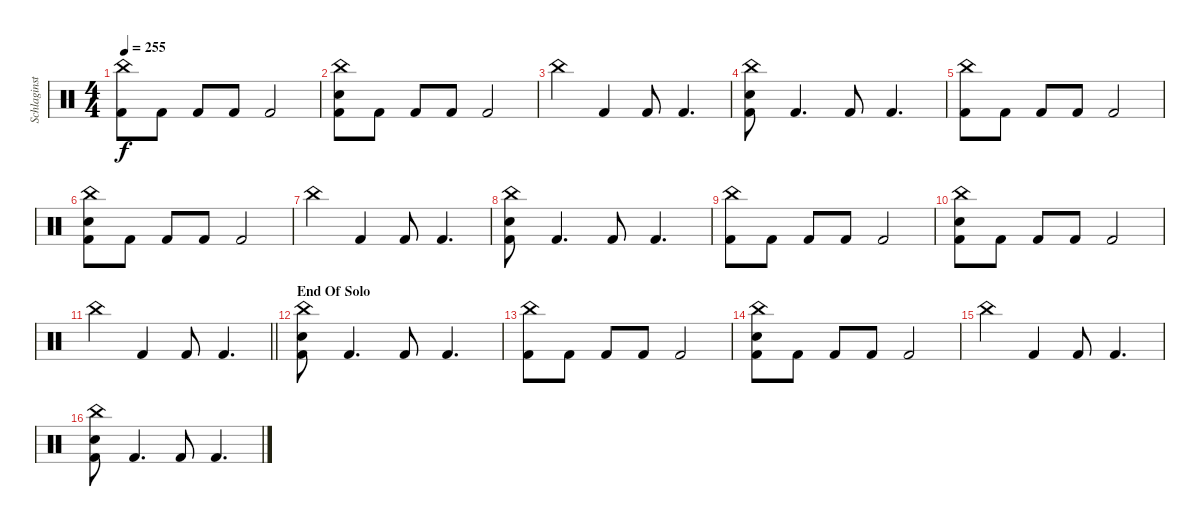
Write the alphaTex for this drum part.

\track ("Schlaginstrumente - Auswahl" "Schlaginst") {instrument percussion}
\staff {score}
\articulation defaults
\ts (4 4)
\tempo 255
\clef neutral
\ks c
("China (hit)" "Kick (hit) 2").8{dy f} "Kick (hit) 2".8 "Kick (hit) 2".8 "Kick (hit) 2".8 "Kick (hit) 2".2 |
("China (hit)" "Electric Snare (hit)" "Kick (hit) 2").8 "Kick (hit) 2".8 "Kick (hit) 2".8 "Kick (hit) 2".8 "Kick (hit) 2".2 |
"China (hit)".4 "Kick (hit) 2".4 "Kick (hit) 2".8 "Kick (hit) 2".4{d} |
("China (hit)" "Electric Snare (hit)" "Kick (hit) 2").8 "Kick (hit) 2".4{d} "Kick (hit) 2".8 "Kick (hit) 2".4{d} |
("China (hit)" "Kick (hit) 2").8 "Kick (hit) 2".8 "Kick (hit) 2".8 "Kick (hit) 2".8 "Kick (hit) 2".2 |
("China (hit)" "Electric Snare (hit)" "Kick (hit) 2").8 "Kick (hit) 2".8 "Kick (hit) 2".8 "Kick (hit) 2".8 "Kick (hit) 2".2 |
"China (hit)".4 "Kick (hit) 2".4 "Kick (hit) 2".8 "Kick (hit) 2".4{d} |
("China (hit)" "Electric Snare (hit)" "Kick (hit) 2").8 "Kick (hit) 2".4{d} "Kick (hit) 2".8 "Kick (hit) 2".4{d} |
("China (hit)" "Kick (hit) 2").8 "Kick (hit) 2".8 "Kick (hit) 2".8 "Kick (hit) 2".8 "Kick (hit) 2".2 |
("China (hit)" "Electric Snare (hit)" "Kick (hit) 2").8 "Kick (hit) 2".8 "Kick (hit) 2".8 "Kick (hit) 2".8 "Kick (hit) 2".2 |
\barLineRight lightlight "China (hit)".4 "Kick (hit) 2".4 "Kick (hit) 2".8 "Kick (hit) 2".4{d}
|
\section ("" "End Of Solo")
("China (hit)" "Electric Snare (hit)" "Kick (hit) 2").8 "Kick (hit) 2".4{d} "Kick (hit) 2".8 "Kick (hit) 2".4{d} |
("China (hit)" "Kick (hit) 2").8 "Kick (hit) 2".8 "Kick (hit) 2".8 "Kick (hit) 2".8 "Kick (hit) 2".2 |
("China (hit)" "Electric Snare (hit)" "Kick (hit) 2").8 "Kick (hit) 2".8 "Kick (hit) 2".8 "Kick (hit) 2".8 "Kick (hit) 2".2 |
"China (hit)".4 "Kick (hit) 2".4 "Kick (hit) 2".8 "Kick (hit) 2".4{d} |
("China (hit)" "Electric Snare (hit)" "Kick (hit) 2").8 "Kick (hit) 2".4{d} "Kick (hit) 2".8 "Kick (hit) 2".4{d}
